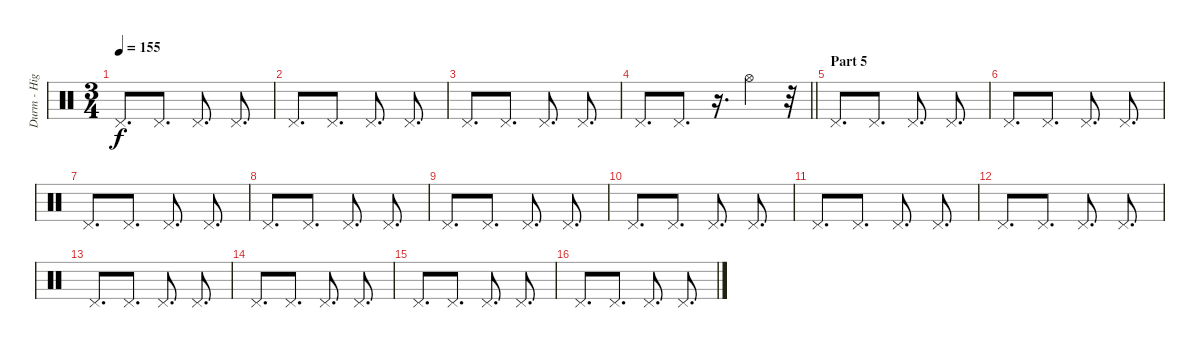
\track ("Durm - High Hat" "Durm - Hig") {instrument percussion}
\staff {score}
\articulation defaults
\ts (3 4)
\tempo 155
\clef neutral
\ks c "Pedal Hi-Hat (hit)".8{d dy f} "Pedal Hi-Hat (hit)".8{d} "Pedal Hi-Hat (hit)".8{d} "Pedal Hi-Hat (hit)".8{d}
|
"Pedal Hi-Hat (hit)".8{d} "Pedal Hi-Hat (hit)".8{d} "Pedal Hi-Hat (hit)".8{d} "Pedal Hi-Hat (hit)".8{d} |
"Pedal Hi-Hat (hit)".8{d} "Pedal Hi-Hat (hit)".8{d} "Pedal Hi-Hat (hit)".8{d} "Pedal Hi-Hat (hit)".8{d} |
\barLineRight lightlight "Pedal Hi-Hat (hit)".8{d} "Pedal Hi-Hat (hit)".8{d}
r.16{d} "Hi-Hat (open)".4 r.32 |
\section ("" "Part 5")
"Pedal Hi-Hat (hit)".8{d} "Pedal Hi-Hat (hit)".8{d} "Pedal Hi-Hat (hit)".8{d} "Pedal Hi-Hat (hit)".8{d} |
"Pedal Hi-Hat (hit)".8{d} "Pedal Hi-Hat (hit)".8{d} "Pedal Hi-Hat (hit)".8{d} "Pedal Hi-Hat (hit)".8{d} |
"Pedal Hi-Hat (hit)".8{d} "Pedal Hi-Hat (hit)".8{d} "Pedal Hi-Hat (hit)".8{d} "Pedal Hi-Hat (hit)".8{d} |
"Pedal Hi-Hat (hit)".8{d} "Pedal Hi-Hat (hit)".8{d} "Pedal Hi-Hat (hit)".8{d} "Pedal Hi-Hat (hit)".8{d} |
"Pedal Hi-Hat (hit)".8{d} "Pedal Hi-Hat (hit)".8{d} "Pedal Hi-Hat (hit)".8{d} "Pedal Hi-Hat (hit)".8{d} |
"Pedal Hi-Hat (hit)".8{d} "Pedal Hi-Hat (hit)".8{d} "Pedal Hi-Hat (hit)".8{d} "Pedal Hi-Hat (hit)".8{d} |
"Pedal Hi-Hat (hit)".8{d} "Pedal Hi-Hat (hit)".8{d} "Pedal Hi-Hat (hit)".8{d} "Pedal Hi-Hat (hit)".8{d} |
"Pedal Hi-Hat (hit)".8{d} "Pedal Hi-Hat (hit)".8{d} "Pedal Hi-Hat (hit)".8{d} "Pedal Hi-Hat (hit)".8{d} |
"Pedal Hi-Hat (hit)".8{d} "Pedal Hi-Hat (hit)".8{d} "Pedal Hi-Hat (hit)".8{d} "Pedal Hi-Hat (hit)".8{d} |
"Pedal Hi-Hat (hit)".8{d} "Pedal Hi-Hat (hit)".8{d} "Pedal Hi-Hat (hit)".8{d} "Pedal Hi-Hat (hit)".8{d} |
"Pedal Hi-Hat (hit)".8{d} "Pedal Hi-Hat (hit)".8{d} "Pedal Hi-Hat (hit)".8{d} "Pedal Hi-Hat (hit)".8{d} |
"Pedal Hi-Hat (hit)".8{d} "Pedal Hi-Hat (hit)".8{d} "Pedal Hi-Hat (hit)".8{d} "Pedal Hi-Hat (hit)".8{d}
